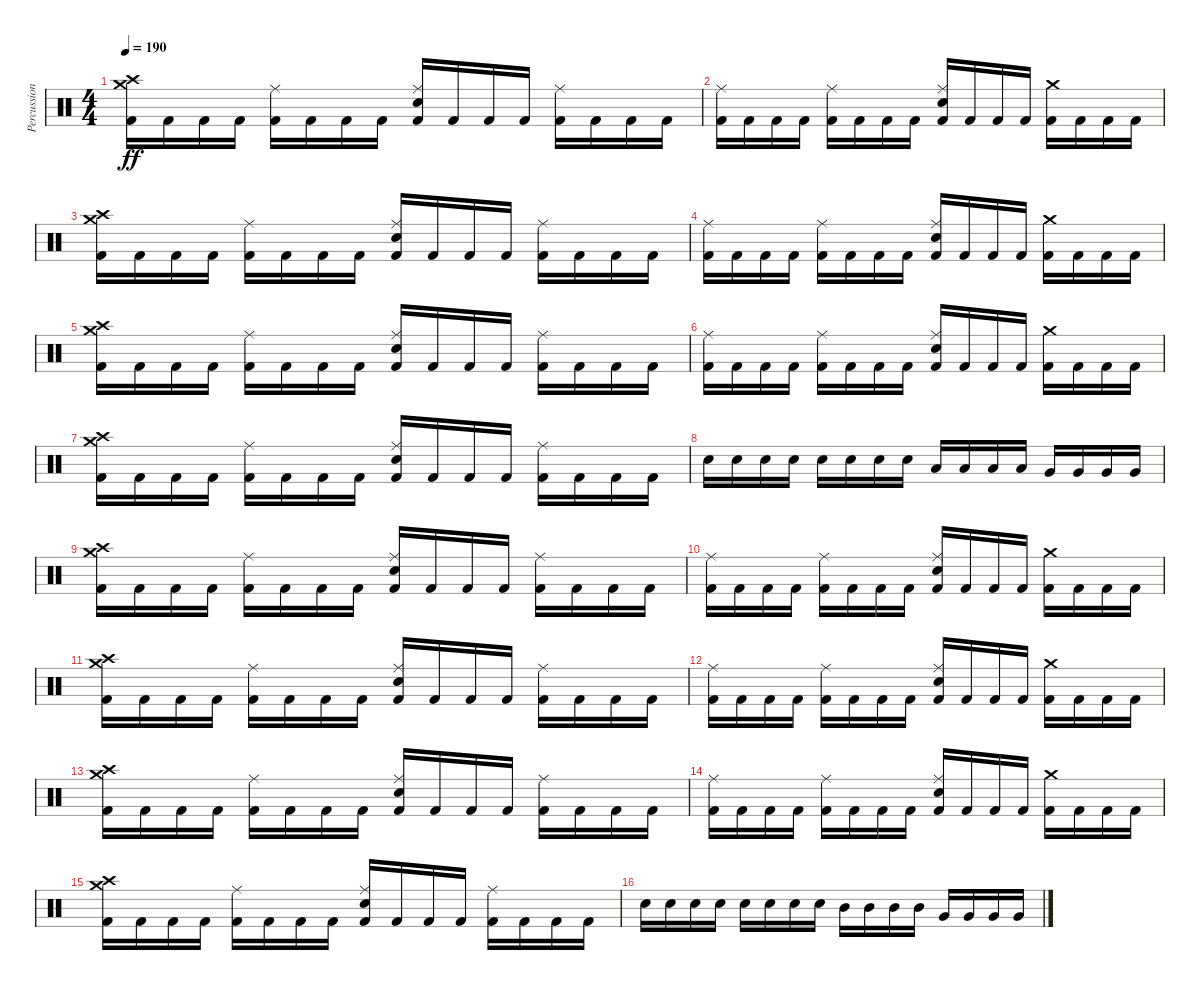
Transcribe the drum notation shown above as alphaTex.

\track ("Percussion" "Percussion") {instrument percussion}
\staff {score}
\articulation defaults
\ts (4 4)
\tempo 190
\clef neutral
\ks c
("Kick (hit) 2" "Crash high (hit)" "Crash medium (hit)").16{dy ff} "Kick (hit) 2".16 "Kick (hit) 2".16 "Kick (hit) 2".16 ("Kick (hit) 2" "Ride (middle)").16 "Kick (hit) 2".16 "Kick (hit) 2".16 "Kick (hit) 2".16 ("Kick (hit) 2" "Electric Snare (hit)" "Ride (middle)").16 "Kick (hit) 2".16 "Kick (hit) 2".16 "Kick (hit) 2".16 ("Kick (hit) 2" "Ride (middle)").16 "Kick (hit) 2".16 "Kick (hit) 2".16 "Kick (hit) 2".16 |
("Kick (hit) 2" "Ride (middle)").16 "Kick (hit) 2".16 "Kick (hit) 2".16 "Kick (hit) 2".16 ("Kick (hit) 2" "Ride (middle)").16 "Kick (hit) 2".16 "Kick (hit) 2".16 "Kick (hit) 2".16 ("Kick (hit) 2" "Electric Snare (hit)" "Ride (middle)").16 "Kick (hit) 2".16 "Kick (hit) 2".16 "Kick (hit) 2".16 ("Kick (hit) 2" "Crash medium (hit)").16 "Kick (hit) 2".16 "Kick (hit) 2".16 "Kick (hit) 2".16 |
("Kick (hit) 2" "Crash high (hit)" "Crash medium (hit)").16 "Kick (hit) 2".16 "Kick (hit) 2".16 "Kick (hit) 2".16 ("Kick (hit) 2" "Ride (middle)").16 "Kick (hit) 2".16 "Kick (hit) 2".16 "Kick (hit) 2".16 ("Kick (hit) 2" "Electric Snare (hit)" "Ride (middle)").16 "Kick (hit) 2".16 "Kick (hit) 2".16 "Kick (hit) 2".16 ("Kick (hit) 2" "Ride (middle)").16 "Kick (hit) 2".16 "Kick (hit) 2".16 "Kick (hit) 2".16 |
("Kick (hit) 2" "Ride (middle)").16 "Kick (hit) 2".16 "Kick (hit) 2".16 "Kick (hit) 2".16 ("Kick (hit) 2" "Ride (middle)").16 "Kick (hit) 2".16 "Kick (hit) 2".16 "Kick (hit) 2".16 ("Kick (hit) 2" "Electric Snare (hit)" "Ride (middle)").16 "Kick (hit) 2".16 "Kick (hit) 2".16 "Kick (hit) 2".16 ("Kick (hit) 2" "Crash medium (hit)").16 "Kick (hit) 2".16 "Kick (hit) 2".16 "Kick (hit) 2".16 |
("Kick (hit) 2" "Crash high (hit)" "Crash medium (hit)").16 "Kick (hit) 2".16 "Kick (hit) 2".16 "Kick (hit) 2".16 ("Kick (hit) 2" "Ride (middle)").16 "Kick (hit) 2".16 "Kick (hit) 2".16 "Kick (hit) 2".16 ("Kick (hit) 2" "Electric Snare (hit)" "Ride (middle)").16 "Kick (hit) 2".16 "Kick (hit) 2".16 "Kick (hit) 2".16 ("Kick (hit) 2" "Ride (middle)").16 "Kick (hit) 2".16 "Kick (hit) 2".16 "Kick (hit) 2".16 |
("Kick (hit) 2" "Ride (middle)").16 "Kick (hit) 2".16 "Kick (hit) 2".16 "Kick (hit) 2".16 ("Kick (hit) 2" "Ride (middle)").16 "Kick (hit) 2".16 "Kick (hit) 2".16 "Kick (hit) 2".16 ("Kick (hit) 2" "Electric Snare (hit)" "Ride (middle)").16 "Kick (hit) 2".16 "Kick (hit) 2".16 "Kick (hit) 2".16 ("Kick (hit) 2" "Crash medium (hit)").16 "Kick (hit) 2".16 "Kick (hit) 2".16 "Kick (hit) 2".16 |
("Kick (hit) 2" "Crash high (hit)" "Crash medium (hit)").16 "Kick (hit) 2".16 "Kick (hit) 2".16 "Kick (hit) 2".16 ("Kick (hit) 2" "Ride (middle)").16 "Kick (hit) 2".16 "Kick (hit) 2".16 "Kick (hit) 2".16 ("Kick (hit) 2" "Electric Snare (hit)" "Ride (middle)").16 "Kick (hit) 2".16 "Kick (hit) 2".16 "Kick (hit) 2".16 ("Kick (hit) 2" "Ride (middle)").16 "Kick (hit) 2".16 "Kick (hit) 2".16 "Kick (hit) 2".16 |
"Electric Snare (hit)".16 "Electric Snare (hit)".16 "Electric Snare (hit)".16 "Electric Snare (hit)".16 "Electric Snare (hit)".16 "Electric Snare (hit)".16 "Electric Snare (hit)".16 "Electric Snare (hit)".16 "Low Tom (hit)".16 "Low Tom (hit)".16 "Low Tom (hit)".16 "Low Tom (hit)".16 "Very Low Tom (hit)".16 "Very Low Tom (hit)".16 "Very Low Tom (hit)".16 "Very Low Tom (hit)".16 |
("Kick (hit) 2" "Crash high (hit)" "Crash medium (hit)").16 "Kick (hit) 2".16 "Kick (hit) 2".16 "Kick (hit) 2".16 ("Kick (hit) 2" "Ride (middle)").16 "Kick (hit) 2".16 "Kick (hit) 2".16 "Kick (hit) 2".16 ("Kick (hit) 2" "Electric Snare (hit)" "Ride (middle)").16 "Kick (hit) 2".16 "Kick (hit) 2".16 "Kick (hit) 2".16 ("Kick (hit) 2" "Ride (middle)").16 "Kick (hit) 2".16 "Kick (hit) 2".16 "Kick (hit) 2".16 |
("Kick (hit) 2" "Ride (middle)").16 "Kick (hit) 2".16 "Kick (hit) 2".16 "Kick (hit) 2".16 ("Kick (hit) 2" "Ride (middle)").16 "Kick (hit) 2".16 "Kick (hit) 2".16 "Kick (hit) 2".16 ("Kick (hit) 2" "Electric Snare (hit)" "Ride (middle)").16 "Kick (hit) 2".16 "Kick (hit) 2".16 "Kick (hit) 2".16 ("Kick (hit) 2" "Crash medium (hit)").16 "Kick (hit) 2".16 "Kick (hit) 2".16 "Kick (hit) 2".16 |
("Kick (hit) 2" "Crash high (hit)" "Crash medium (hit)").16 "Kick (hit) 2".16 "Kick (hit) 2".16 "Kick (hit) 2".16 ("Kick (hit) 2" "Ride (middle)").16 "Kick (hit) 2".16 "Kick (hit) 2".16 "Kick (hit) 2".16 ("Kick (hit) 2" "Electric Snare (hit)" "Ride (middle)").16 "Kick (hit) 2".16 "Kick (hit) 2".16 "Kick (hit) 2".16 ("Kick (hit) 2" "Ride (middle)").16 "Kick (hit) 2".16 "Kick (hit) 2".16 "Kick (hit) 2".16 |
("Kick (hit) 2" "Ride (middle)").16 "Kick (hit) 2".16 "Kick (hit) 2".16 "Kick (hit) 2".16 ("Kick (hit) 2" "Ride (middle)").16 "Kick (hit) 2".16 "Kick (hit) 2".16 "Kick (hit) 2".16 ("Kick (hit) 2" "Electric Snare (hit)" "Ride (middle)").16 "Kick (hit) 2".16 "Kick (hit) 2".16 "Kick (hit) 2".16 ("Kick (hit) 2" "Crash medium (hit)").16 "Kick (hit) 2".16 "Kick (hit) 2".16 "Kick (hit) 2".16 |
("Kick (hit) 2" "Crash high (hit)" "Crash medium (hit)").16 "Kick (hit) 2".16 "Kick (hit) 2".16 "Kick (hit) 2".16 ("Kick (hit) 2" "Ride (middle)").16 "Kick (hit) 2".16 "Kick (hit) 2".16 "Kick (hit) 2".16 ("Kick (hit) 2" "Electric Snare (hit)" "Ride (middle)").16 "Kick (hit) 2".16 "Kick (hit) 2".16 "Kick (hit) 2".16 ("Kick (hit) 2" "Ride (middle)").16 "Kick (hit) 2".16 "Kick (hit) 2".16 "Kick (hit) 2".16 |
("Kick (hit) 2" "Ride (middle)").16 "Kick (hit) 2".16 "Kick (hit) 2".16 "Kick (hit) 2".16 ("Kick (hit) 2" "Ride (middle)").16 "Kick (hit) 2".16 "Kick (hit) 2".16 "Kick (hit) 2".16 ("Kick (hit) 2" "Electric Snare (hit)" "Ride (middle)").16 "Kick (hit) 2".16 "Kick (hit) 2".16 "Kick (hit) 2".16 ("Kick (hit) 2" "Crash medium (hit)").16 "Kick (hit) 2".16 "Kick (hit) 2".16 "Kick (hit) 2".16 |
("Kick (hit) 2" "Crash high (hit)" "Crash medium (hit)").16 "Kick (hit) 2".16 "Kick (hit) 2".16 "Kick (hit) 2".16 ("Kick (hit) 2" "Ride (middle)").16 "Kick (hit) 2".16 "Kick (hit) 2".16 "Kick (hit) 2".16 ("Kick (hit) 2" "Electric Snare (hit)" "Ride (middle)").16 "Kick (hit) 2".16 "Kick (hit) 2".16 "Kick (hit) 2".16 ("Kick (hit) 2" "Ride (middle)").16 "Kick (hit) 2".16 "Kick (hit) 2".16 "Kick (hit) 2".16 |
"Electric Snare (hit)".16 "Electric Snare (hit)".16 "Electric Snare (hit)".16 "Electric Snare (hit)".16 "Electric Snare (hit)".16 "Electric Snare (hit)".16 "Electric Snare (hit)".16 "Electric Snare (hit)".16 "Mid Tom (hit)".16 "Mid Tom (hit)".16 "Mid Tom (hit)".16 "Mid Tom (hit)".16 "Very Low Tom (hit)".16 "Very Low Tom (hit)".16 "Very Low Tom (hit)".16 "Very Low Tom (hit)".16
